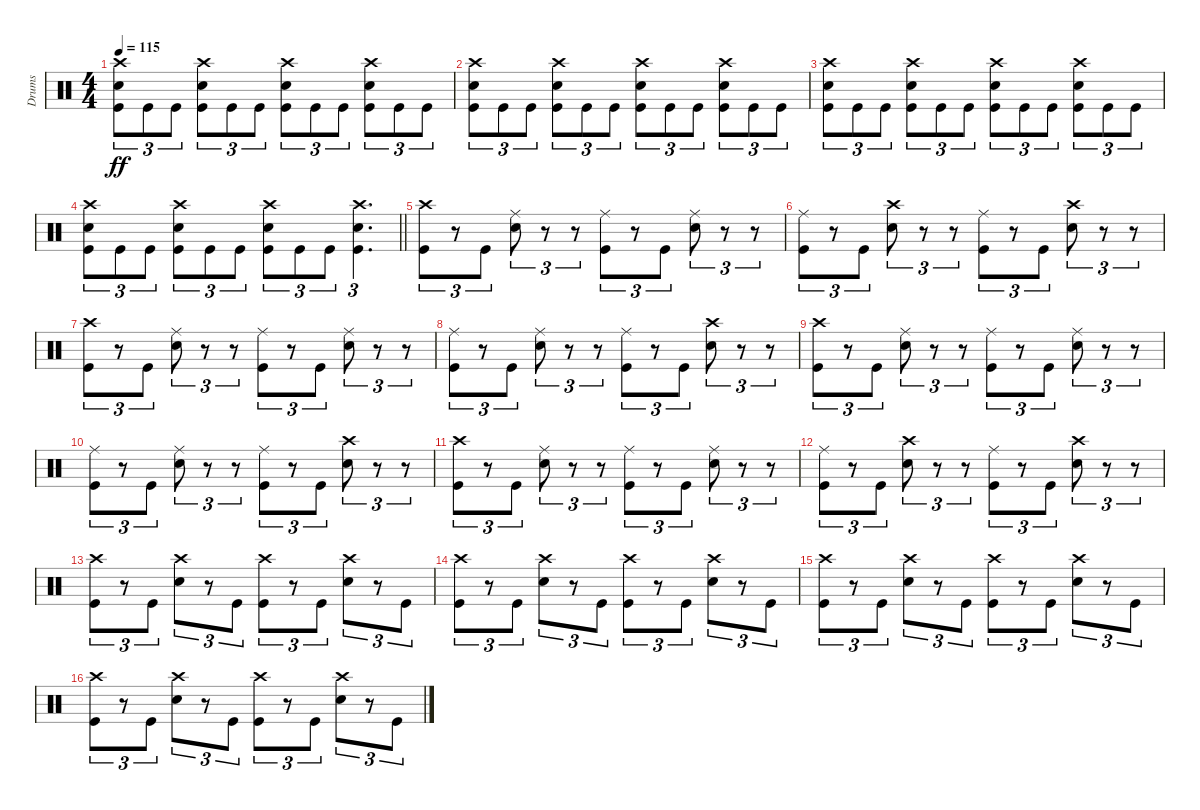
\track ("Drums" "Drums") {instrument percussion}
\staff {score}
\articulation defaults
\ts (4 4)
\tempo 115
\clef neutral
\ks c
("Crash high (hit)" "Snare (hit) 2" "Kick (hit)").8{tu (3 2) dy ff} "Kick (hit)".8{tu (3 2)} "Kick (hit)".8{tu (3 2)} ("Crash high (hit)" "Snare (hit) 2" "Kick (hit)").8{tu (3 2)} "Kick (hit)".8{tu (3 2)} "Kick (hit)".8{tu (3 2)} ("Crash high (hit)" "Snare (hit) 2" "Kick (hit)").8{tu (3 2)} "Kick (hit)".8{tu (3 2)} "Kick (hit)".8{tu (3 2)} ("Crash high (hit)" "Snare (hit) 2" "Kick (hit)").8{tu (3 2)} "Kick (hit)".8{tu (3 2)} "Kick (hit)".8{tu (3 2)} |
("Crash high (hit)" "Snare (hit) 2" "Kick (hit)").8{tu (3 2)} "Kick (hit)".8{tu (3 2)} "Kick (hit)".8{tu (3 2)} ("Crash high (hit)" "Snare (hit) 2" "Kick (hit)").8{tu (3 2)} "Kick (hit)".8{tu (3 2)} "Kick (hit)".8{tu (3 2)} ("Crash high (hit)" "Snare (hit) 2" "Kick (hit)").8{tu (3 2)} "Kick (hit)".8{tu (3 2)} "Kick (hit)".8{tu (3 2)} ("Crash high (hit)" "Snare (hit) 2" "Kick (hit)").8{tu (3 2)} "Kick (hit)".8{tu (3 2)} "Kick (hit)".8{tu (3 2)} |
("Crash high (hit)" "Snare (hit) 2" "Kick (hit)").8{tu (3 2)} "Kick (hit)".8{tu (3 2)} "Kick (hit)".8{tu (3 2)} ("Crash high (hit)" "Snare (hit) 2" "Kick (hit)").8{tu (3 2)} "Kick (hit)".8{tu (3 2)} "Kick (hit)".8{tu (3 2)} ("Crash high (hit)" "Snare (hit) 2" "Kick (hit)").8{tu (3 2)} "Kick (hit)".8{tu (3 2)} "Kick (hit)".8{tu (3 2)} ("Crash high (hit)" "Snare (hit) 2" "Kick (hit)").8{tu (3 2)} "Kick (hit)".8{tu (3 2)} "Kick (hit)".8{tu (3 2)} |
\barLineRight lightlight
("Crash high (hit)" "Snare (hit) 2" "Kick (hit)").8{tu (3 2)} "Kick (hit)".8{tu (3 2)} "Kick (hit)".8{tu (3 2)} ("Crash high (hit)" "Snare (hit) 2" "Kick (hit)").8{tu (3 2)} "Kick (hit)".8{tu (3 2)} "Kick (hit)".8{tu (3 2)} ("Crash high (hit)" "Snare (hit) 2" "Kick (hit)").8{tu (3 2)} "Kick (hit)".8{tu (3 2)} "Kick (hit)".8{tu (3 2)} ("Crash high (hit)" "Snare (hit) 2" "Kick (hit)").4{d tu (3 2)} |
("Crash high (hit)" "Kick (hit)").8{tu (3 2)} r.8{tu (3 2)} "Kick (hit)".8{tu (3 2)} ("Ride (middle)" "Snare (hit) 2").8{tu (3 2)} r.8{tu (3 2)} r.8{tu (3 2)} ("Ride (middle)" "Kick (hit)").8{tu (3 2)} r.8{tu (3 2)} "Kick (hit)".8{tu (3 2)} ("Ride (middle)" "Snare (hit) 2").8{tu (3 2)} r.8{tu (3 2)} r.8{tu (3 2)} |
("Ride (middle)" "Kick (hit)").8{tu (3 2)} r.8{tu (3 2)} "Kick (hit)".8{tu (3 2)} ("Crash high (hit)" "Snare (hit) 2").8{tu (3 2)} r.8{tu (3 2)} r.8{tu (3 2)} ("Ride (middle)" "Kick (hit)").8{tu (3 2)} r.8{tu (3 2)} "Kick (hit)".8{tu (3 2)} ("Crash high (hit)" "Snare (hit) 2").8{tu (3 2)} r.8{tu (3 2)} r.8{tu (3 2)} |
("Crash high (hit)" "Kick (hit)").8{tu (3 2)} r.8{tu (3 2)} "Kick (hit)".8{tu (3 2)} ("Ride (middle)" "Snare (hit) 2").8{tu (3 2)} r.8{tu (3 2)} r.8{tu (3 2)} ("Ride (middle)" "Kick (hit)").8{tu (3 2)} r.8{tu (3 2)} "Kick (hit)".8{tu (3 2)} ("Ride (middle)" "Snare (hit) 2").8{tu (3 2)} r.8{tu (3 2)} r.8{tu (3 2)} |
("Ride (middle)" "Kick (hit)").8{tu (3 2)} r.8{tu (3 2)} "Kick (hit)".8{tu (3 2)} ("Ride (middle)" "Snare (hit) 2").8{tu (3 2)} r.8{tu (3 2)} r.8{tu (3 2)} ("Ride (middle)" "Kick (hit)").8{tu (3 2)} r.8{tu (3 2)} "Kick (hit)".8{tu (3 2)} ("Crash high (hit)" "Snare (hit) 2").8{tu (3 2)} r.8{tu (3 2)} r.8{tu (3 2)} |
("Crash high (hit)" "Kick (hit)").8{tu (3 2)} r.8{tu (3 2)} "Kick (hit)".8{tu (3 2)} ("Ride (middle)" "Snare (hit) 2").8{tu (3 2)} r.8{tu (3 2)} r.8{tu (3 2)} ("Ride (middle)" "Kick (hit)").8{tu (3 2)} r.8{tu (3 2)} "Kick (hit)".8{tu (3 2)} ("Ride (middle)" "Snare (hit) 2").8{tu (3 2)} r.8{tu (3 2)} r.8{tu (3 2)} |
("Ride (middle)" "Kick (hit)").8{tu (3 2)} r.8{tu (3 2)} "Kick (hit)".8{tu (3 2)} ("Ride (middle)" "Snare (hit) 2").8{tu (3 2)} r.8{tu (3 2)} r.8{tu (3 2)} ("Ride (middle)" "Kick (hit)").8{tu (3 2)} r.8{tu (3 2)} "Kick (hit)".8{tu (3 2)} ("Crash high (hit)" "Snare (hit) 2").8{tu (3 2)} r.8{tu (3 2)} r.8{tu (3 2)} |
("Crash high (hit)" "Kick (hit)").8{tu (3 2)} r.8{tu (3 2)} "Kick (hit)".8{tu (3 2)} ("Ride (middle)" "Snare (hit) 2").8{tu (3 2)} r.8{tu (3 2)} r.8{tu (3 2)} ("Ride (middle)" "Kick (hit)").8{tu (3 2)} r.8{tu (3 2)} "Kick (hit)".8{tu (3 2)} ("Ride (middle)" "Snare (hit) 2").8{tu (3 2)} r.8{tu (3 2)} r.8{tu (3 2)} |
("Ride (middle)" "Kick (hit)").8{tu (3 2)} r.8{tu (3 2)} "Kick (hit)".8{tu (3 2)} ("Crash high (hit)" "Snare (hit) 2").8{tu (3 2)} r.8{tu (3 2)} r.8{tu (3 2)} ("Ride (middle)" "Kick (hit)").8{tu (3 2)} r.8{tu (3 2)} "Kick (hit)".8{tu (3 2)} ("Crash high (hit)" "Snare (hit) 2").8{tu (3 2)} r.8{tu (3 2)} r.8{tu (3 2)} |
("Crash high (hit)" "Kick (hit)").8{tu (3 2)} r.8{tu (3 2)} "Kick (hit)".8{tu (3 2)} ("Crash high (hit)" "Snare (hit) 2").8{tu (3 2)} r.8{tu (3 2)} "Kick (hit)".8{tu (3 2)} ("Crash high (hit)" "Kick (hit)").8{tu (3 2)} r.8{tu (3 2)} "Kick (hit)".8{tu (3 2)} ("Crash high (hit)" "Snare (hit) 2").8{tu (3 2)} r.8{tu (3 2)} "Kick (hit)".8{tu (3 2)} |
("Crash high (hit)" "Kick (hit)").8{tu (3 2)} r.8{tu (3 2)} "Kick (hit)".8{tu (3 2)} ("Crash high (hit)" "Snare (hit) 2").8{tu (3 2)} r.8{tu (3 2)} "Kick (hit)".8{tu (3 2)} ("Crash high (hit)" "Kick (hit)").8{tu (3 2)} r.8{tu (3 2)} "Kick (hit)".8{tu (3 2)} ("Crash high (hit)" "Snare (hit) 2").8{tu (3 2)} r.8{tu (3 2)} "Kick (hit)".8{tu (3 2)} |
("Crash high (hit)" "Kick (hit)").8{tu (3 2)} r.8{tu (3 2)} "Kick (hit)".8{tu (3 2)} ("Crash high (hit)" "Snare (hit) 2").8{tu (3 2)} r.8{tu (3 2)} "Kick (hit)".8{tu (3 2)} ("Crash high (hit)" "Kick (hit)").8{tu (3 2)} r.8{tu (3 2)} "Kick (hit)".8{tu (3 2)} ("Crash high (hit)" "Snare (hit) 2").8{tu (3 2)} r.8{tu (3 2)} "Kick (hit)".8{tu (3 2)} |
("Crash high (hit)" "Kick (hit)").8{tu (3 2)} r.8{tu (3 2)} "Kick (hit)".8{tu (3 2)} ("Crash high (hit)" "Snare (hit) 2").8{tu (3 2)} r.8{tu (3 2)} "Kick (hit)".8{tu (3 2)} ("Crash high (hit)" "Kick (hit)").8{tu (3 2)} r.8{tu (3 2)} "Kick (hit)".8{tu (3 2)} ("Crash high (hit)" "Snare (hit) 2").8{tu (3 2)} r.8{tu (3 2)} "Kick (hit)".8{tu (3 2)}
